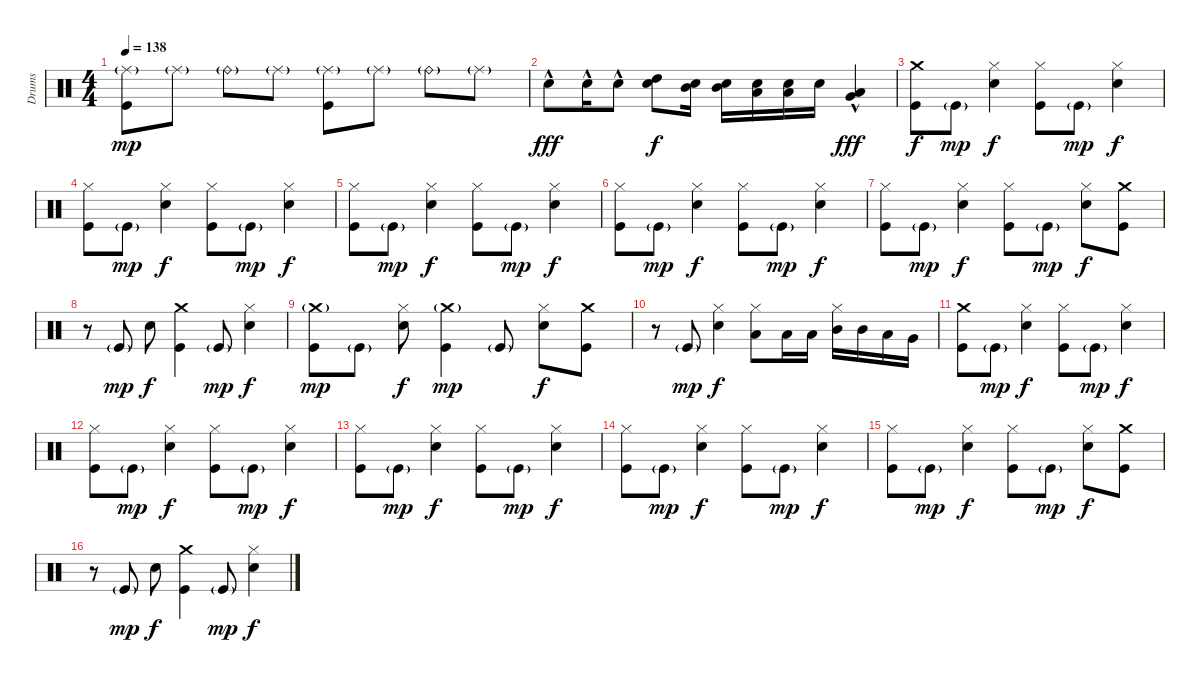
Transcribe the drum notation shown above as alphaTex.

\track ("Drums" "Drums") {instrument percussion}
\staff {score}
\articulation defaults
\ts (4 4)
\tempo 138
\clef neutral
\ks c
("Ride (middle)"{g} "Kick (hit)").8{dy mp} "Ride (middle)"{g}.8 "Ride (bell)"{g}.8 "Ride (middle)"{g}.8 ("Ride (middle)"{g} "Kick (hit)").8 "Ride (middle)"{g}.8 "Ride (bell)"{g}.8 "Ride (middle)"{g}.8 |
"Electric Snare (hit)"{hac}.8{dy fff} "Electric Snare (hit)"{hac}.16 "Electric Snare (hit)"{hac}.8 ("Electric Snare (hit)" "High Tom (hit)").8{dy f} ("Electric Snare (hit)" "Mid Tom (hit)").16 ("Electric Snare (hit)" "Mid Tom (hit)").16 ("Electric Snare (hit)" "Low Tom (hit)").16 ("Electric Snare (hit)" "Low Tom (hit)").16 "Electric Snare (hit)".16 ("Low Tom (hit)" "Very Low Tom (hit)"{hac}).4{dy fff} |
("Crash medium (hit)" "Kick (hit)").8{dy f} "Kick (hit)"{g}.8{dy mp} ("Hi-Hat (closed)" "Electric Snare (hit)").4{dy f} ("Hi-Hat (closed)" "Kick (hit)").8 "Kick (hit)"{g}.8{dy mp} ("Hi-Hat (closed)" "Electric Snare (hit)").4{dy f} |
("Hi-Hat (closed)" "Kick (hit)").8 "Kick (hit)"{g}.8{dy mp} ("Hi-Hat (closed)" "Electric Snare (hit)").4{dy f} ("Hi-Hat (closed)" "Kick (hit)").8 "Kick (hit)"{g}.8{dy mp} ("Hi-Hat (closed)" "Electric Snare (hit)").4{dy f} |
("Hi-Hat (closed)" "Kick (hit)").8 "Kick (hit)"{g}.8{dy mp} ("Hi-Hat (closed)" "Electric Snare (hit)").4{dy f} ("Hi-Hat (closed)" "Kick (hit)").8 "Kick (hit)"{g}.8{dy mp} ("Hi-Hat (closed)" "Electric Snare (hit)").4{dy f} |
("Hi-Hat (closed)" "Kick (hit)").8 "Kick (hit)"{g}.8{dy mp} ("Hi-Hat (closed)" "Electric Snare (hit)").4{dy f} ("Hi-Hat (closed)" "Kick (hit)").8 "Kick (hit)"{g}.8{dy mp} ("Hi-Hat (closed)" "Electric Snare (hit)").4{dy f} |
("Hi-Hat (closed)" "Kick (hit)").8 "Kick (hit)"{g}.8{dy mp} ("Hi-Hat (closed)" "Electric Snare (hit)").4{dy f} ("Hi-Hat (closed)" "Kick (hit)").8 "Kick (hit)"{g}.8{dy mp} ("Hi-Hat (closed)" "Electric Snare (hit)").8{dy f} ("Crash medium (hit)" "Kick (hit)").8 |
r.8 "Kick (hit)"{g}.8{dy mp} "Electric Snare (hit)".8{dy f} ("Crash medium (hit)" "Kick (hit)").4 "Kick (hit)"{g}.8{dy mp} ("Hi-Hat (closed)" "Electric Snare (hit)").4{dy f} |
("Crash medium (hit)"{g} "Kick (hit)").8{dy mp} "Kick (hit)"{g}.8 ("Hi-Hat (closed)" "Electric Snare (hit)").8{dy f} ("Crash medium (hit)"{g} "Kick (hit)").4{dy mp} "Kick (hit)"{g}.8 ("Hi-Hat (closed)" "Electric Snare (hit)").8{dy f} ("Crash medium (hit)" "Kick (hit)").8 |
r.8 "Kick (hit)"{g}.8{dy mp} ("Hi-Hat (closed)" "Electric Snare (hit)").4{dy f} ("Hi-Hat (closed)" "Low Tom (hit)").8 "Low Tom (hit)".16 "Low Tom (hit)".16 ("Hi-Hat (closed)" "Mid Tom (hit)").16 "Mid Tom (hit)".16 "Low Tom (hit)".16 "Very Low Tom (hit)".16 |
("Crash medium (hit)" "Kick (hit)").8 "Kick (hit)"{g}.8{dy mp} ("Hi-Hat (closed)" "Electric Snare (hit)").4{dy f} ("Hi-Hat (closed)" "Kick (hit)").8 "Kick (hit)"{g}.8{dy mp} ("Hi-Hat (closed)" "Electric Snare (hit)").4{dy f} |
("Hi-Hat (closed)" "Kick (hit)").8 "Kick (hit)"{g}.8{dy mp} ("Hi-Hat (closed)" "Electric Snare (hit)").4{dy f} ("Hi-Hat (closed)" "Kick (hit)").8 "Kick (hit)"{g}.8{dy mp} ("Hi-Hat (closed)" "Electric Snare (hit)").4{dy f} |
("Hi-Hat (closed)" "Kick (hit)").8 "Kick (hit)"{g}.8{dy mp} ("Hi-Hat (closed)" "Electric Snare (hit)").4{dy f} ("Hi-Hat (closed)" "Kick (hit)").8 "Kick (hit)"{g}.8{dy mp} ("Hi-Hat (closed)" "Electric Snare (hit)").4{dy f} |
("Hi-Hat (closed)" "Kick (hit)").8 "Kick (hit)"{g}.8{dy mp} ("Hi-Hat (closed)" "Electric Snare (hit)").4{dy f} ("Hi-Hat (closed)" "Kick (hit)").8 "Kick (hit)"{g}.8{dy mp} ("Hi-Hat (closed)" "Electric Snare (hit)").4{dy f} |
("Hi-Hat (closed)" "Kick (hit)").8 "Kick (hit)"{g}.8{dy mp} ("Hi-Hat (closed)" "Electric Snare (hit)").4{dy f} ("Hi-Hat (closed)" "Kick (hit)").8 "Kick (hit)"{g}.8{dy mp} ("Hi-Hat (closed)" "Electric Snare (hit)").8{dy f} ("Crash medium (hit)" "Kick (hit)").8 |
r.8 "Kick (hit)"{g}.8{dy mp} "Electric Snare (hit)".8{dy f} ("Crash medium (hit)" "Kick (hit)").4 "Kick (hit)"{g}.8{dy mp} ("Hi-Hat (closed)" "Electric Snare (hit)").4{dy f}
